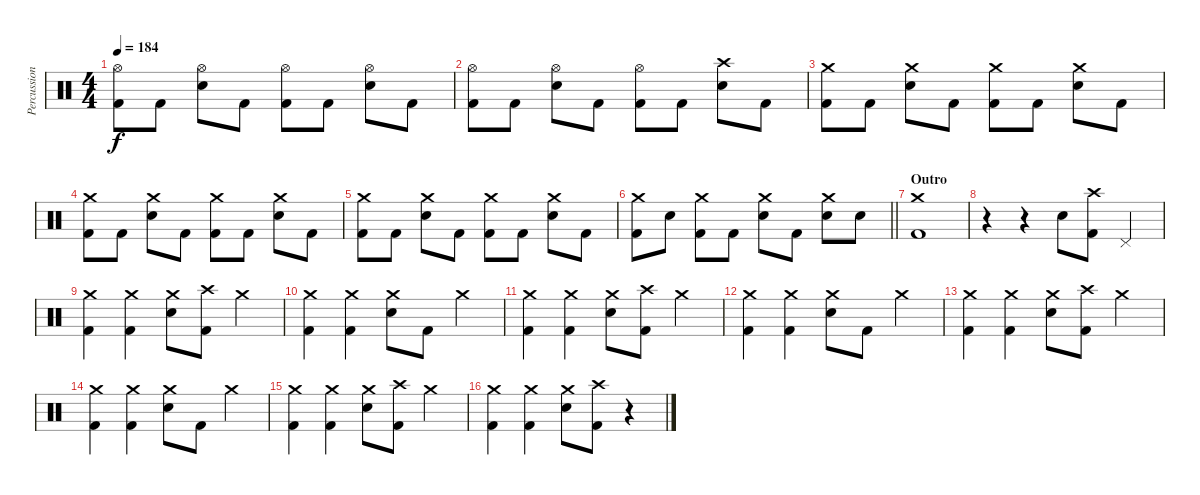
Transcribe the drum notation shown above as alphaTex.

\track ("Percussions" "Percussion") {instrument percussion}
\staff {score}
\articulation defaults
\ts (4 4)
\tempo 184
\clef neutral
\ks c
("Hi-Hat (open)" "Kick (hit) 2").8{dy f} "Kick (hit) 2".8 ("Hi-Hat (open)" "Electric Snare (hit)").8 "Kick (hit) 2".8 ("Hi-Hat (open)" "Kick (hit) 2").8 "Kick (hit) 2".8 ("Hi-Hat (open)" "Electric Snare (hit)").8 "Kick (hit) 2".8 |
("Hi-Hat (open)" "Kick (hit) 2").8 "Kick (hit) 2".8 ("Hi-Hat (open)" "Electric Snare (hit)").8 "Kick (hit) 2".8 ("Hi-Hat (open)" "Kick (hit) 2").8 "Kick (hit) 2".8 ("Crash high (hit)" "Electric Snare (hit)").8 "Kick (hit) 2".8 |
("Crash medium (hit)" "Kick (hit) 2").8 "Kick (hit) 2".8 ("Crash medium (hit)" "Electric Snare (hit)").8 "Kick (hit) 2".8 ("Crash medium (hit)" "Kick (hit) 2").8 "Kick (hit) 2".8 ("Crash medium (hit)" "Electric Snare (hit)").8 "Kick (hit) 2".8 |
("Crash medium (hit)" "Kick (hit) 2").8 "Kick (hit) 2".8 ("Crash medium (hit)" "Electric Snare (hit)").8 "Kick (hit) 2".8 ("Crash medium (hit)" "Kick (hit) 2").8 "Kick (hit) 2".8 ("Crash medium (hit)" "Electric Snare (hit)").8 "Kick (hit) 2".8 |
("Crash medium (hit)" "Kick (hit) 2").8 "Kick (hit) 2".8 ("Crash medium (hit)" "Electric Snare (hit)").8 "Kick (hit) 2".8 ("Crash medium (hit)" "Kick (hit) 2").8 "Kick (hit) 2".8 ("Crash medium (hit)" "Electric Snare (hit)").8 "Kick (hit) 2".8 |
\barLineRight lightlight
("Crash medium (hit)" "Kick (hit) 2").8 "Electric Snare (hit)".8 ("Crash medium (hit)" "Kick (hit) 2").8 "Kick (hit) 2".8 ("Crash medium (hit)" "Electric Snare (hit)").8 "Kick (hit) 2".8 ("Crash medium (hit)" "Electric Snare (hit)").8 "Electric Snare (hit)".8 |
\section ("" "Outro")
("Crash medium (hit)" "Kick (hit) 2").1 |
r.4 r.4 "Electric Snare (hit)".8 ("Crash high (hit)" "Kick (hit) 2").8 "Pedal Hi-Hat (hit)".4 |
("Crash medium (hit)" "Kick (hit) 2").4 ("Crash medium (hit)" "Kick (hit) 2").4 ("Crash medium (hit)" "Electric Snare (hit)").8 ("Crash high (hit)" "Kick (hit) 2").8 "Crash medium (hit)".4 |
("Crash medium (hit)" "Kick (hit) 2").4 ("Crash medium (hit)" "Kick (hit) 2").4 ("Crash medium (hit)" "Electric Snare (hit)").8 "Kick (hit) 2".8 "Crash medium (hit)".4 |
("Crash medium (hit)" "Kick (hit) 2").4 ("Crash medium (hit)" "Kick (hit) 2").4 ("Crash medium (hit)" "Electric Snare (hit)").8 ("Crash high (hit)" "Kick (hit) 2").8 "Crash medium (hit)".4 |
("Crash medium (hit)" "Kick (hit) 2").4 ("Crash medium (hit)" "Kick (hit) 2").4 ("Crash medium (hit)" "Electric Snare (hit)").8 "Kick (hit) 2".8 "Crash medium (hit)".4 |
("Crash medium (hit)" "Kick (hit) 2").4 ("Crash medium (hit)" "Kick (hit) 2").4 ("Crash medium (hit)" "Electric Snare (hit)").8 ("Crash high (hit)" "Kick (hit) 2").8 "Crash medium (hit)".4 |
("Crash medium (hit)" "Kick (hit) 2").4 ("Crash medium (hit)" "Kick (hit) 2").4 ("Crash medium (hit)" "Electric Snare (hit)").8 "Kick (hit) 2".8 "Crash medium (hit)".4 |
("Crash medium (hit)" "Kick (hit) 2").4 ("Crash medium (hit)" "Kick (hit) 2").4 ("Crash medium (hit)" "Electric Snare (hit)").8 ("Crash high (hit)" "Kick (hit) 2").8 "Crash medium (hit)".4 |
("Crash medium (hit)" "Kick (hit) 2").4 ("Crash medium (hit)" "Kick (hit) 2").4 ("Crash medium (hit)" "Electric Snare (hit)").8 ("Crash high (hit)" "Kick (hit) 2").8 r.4
